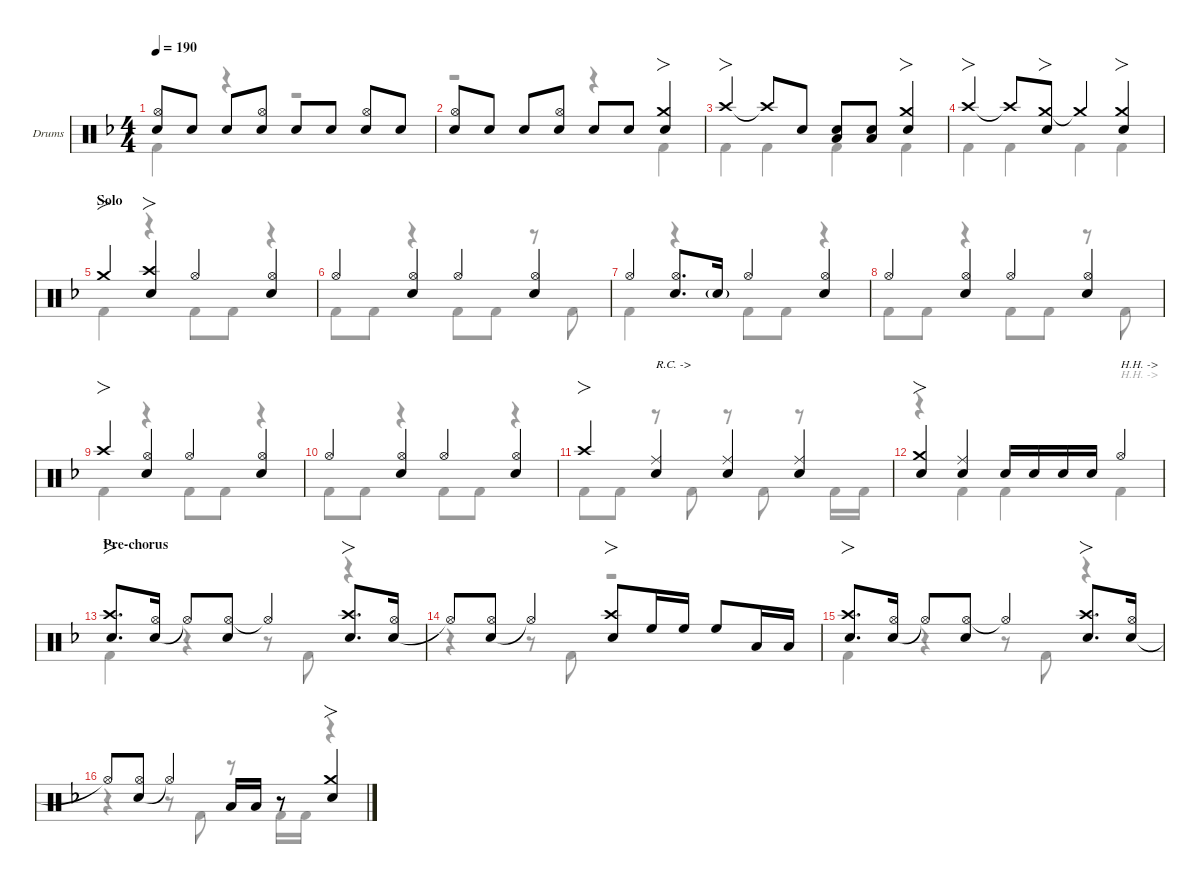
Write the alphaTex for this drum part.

\defaultSystemsLayout 4
\hideDynamics
\bracketExtendMode nobrackets
\firstSystemTrackNameOrientation horizontal
\track ("Drums" "Drums") {defaultSystemsLayout 4 instrument percussion}
\staff {score}
\articulation defaults
\voice
\ts (4 4)
\tempo 190
\clef neutral
\scale
0.266618
\ks dminor
("Snare (hit) 2"{acc forcenatural} "Hi-Hat (open)"{acc forcenatural}).8{dy f beam Up} "Snare (hit) 2"{acc forcenatural}.8{dy mf beam Up} "Snare (hit) 2"{acc forcenatural}.8{beam Up} ("Hi-Hat (open)"{acc forcenatural} "Snare (hit) 2"{acc forcenatural}).8{dy f beam Up} "Snare (hit) 2"{acc forcenatural}.8{dy mf beam Up} "Snare (hit) 2"{acc forcenatural}.8{beam Up} ("Hi-Hat (open)"{acc forcenatural} "Snare (hit) 2"{acc forcenatural}).8{dy f beam Up} "Snare (hit) 2"{acc forcenatural}.8{dy mf beam Up} |
\scale
0.244461 ("Snare (hit) 2"{acc forcenatural} "Hi-Hat (open)"{acc forcenatural}).8{dy f beam Up} "Snare (hit) 2"{acc forcenatural}.8{dy mf beam Up} "Snare (hit) 2"{acc forcenatural}.8{beam Up} ("Hi-Hat (open)"{acc forcenatural} "Snare (hit) 2"{acc forcenatural}).8{dy f beam Up} "Snare (hit) 2"{acc forcenatural}.8{dy mf beam Up} "Snare (hit) 2"{acc forcenatural}.8{beam Up} ("Crash medium (hit)"{acc forcenatural} "Snare (hit) 2"{acc forcenatural}).4{fo dy f beam Up} |
\scale
0.244461 "Crash high (hit)"{acc forcenatural}.4{fo beam Up} "Crash high (hit)"{t acc forcenatural}.8{beam Up} "Snare (hit) 2"{acc forcenatural}.8{beam Up} ("Snare (hit) 2"{acc forcenatural} "Low Tom (hit)"{acc forcenatural}).8{beam Up} ("Snare (hit) 2"{acc forcenatural} "Low Tom (hit)"{acc forcenatural}).8{beam Up} ("Snare (hit) 2"{acc forcenatural} "Crash medium (hit)"{acc forcenatural}).4{fo beam Up} |
\scale
0.244461 "Crash high (hit)"{acc forcenatural}.4{fo beam Up} "Crash high (hit)"{t acc forcenatural}.8{beam Up} ("Crash medium (hit)"{acc forcenatural} "Snare (hit) 2"{acc forcenatural}).8{fo beam Up} "Crash medium (hit)"{t acc forcenatural}.4{beam Up} ("Crash medium (hit)"{acc forcenatural} "Snare (hit) 2"{acc forcenatural}).4{fo beam Up} |
\section ("" "Solo")
\scale
0.267605 "Crash medium (hit)"{acc forcenatural}.4{fo beam Up} ("Crash high (hit)"{acc forcenatural} "Snare (hit) 2"{acc forcenatural}).4{fo beam Up} "Hi-Hat (open)"{acc forcenatural}.4{beam Up} ("Hi-Hat (open)"{acc forcenatural} "Snare (hit) 2"{acc forcenatural}).4{beam Up} |
\scale
0.243474 "Hi-Hat (open)"{acc forcenatural}.4{beam Up} ("Hi-Hat (open)"{acc forcenatural} "Snare (hit) 2"{acc forcenatural}).4{beam Up} "Hi-Hat (open)"{acc forcenatural}.4{beam Up} ("Hi-Hat (open)"{acc forcenatural} "Snare (hit) 2"{acc forcenatural}).4{beam Up} |
\scale
0.244789 "Hi-Hat (open)"{acc forcenatural}.4{beam Up} ("Hi-Hat (open)"{acc forcenatural} "Snare (hit) 2"{acc forcenatural}).8{d beam Up} "Snare (hit) 2"{g acc forcenatural}.16{dy mf beam Up} "Hi-Hat (open)"{acc forcenatural}.4{dy f beam Up} ("Hi-Hat (open)"{acc forcenatural} "Snare (hit) 2"{acc forcenatural}).4{beam Up} |
\scale
0.244132 "Hi-Hat (open)"{acc forcenatural}.4{beam Up} ("Hi-Hat (open)"{acc forcenatural} "Snare (hit) 2"{acc forcenatural}).4{beam Up} "Hi-Hat (open)"{acc forcenatural}.4{beam Up} ("Hi-Hat (open)"{acc forcenatural} "Snare (hit) 2"{acc forcenatural}).4{beam Up} |
\scale
0.266618 "Crash high (hit)"{acc forcenatural}.4{fo beam Up} ("Hi-Hat (open)"{acc forcenatural} "Snare (hit) 2"{acc forcenatural}).4{beam Up} "Hi-Hat (open)"{acc forcenatural}.4{beam Up} ("Hi-Hat (open)"{acc forcenatural} "Snare (hit) 2"{acc forcenatural}).4{beam Up} |
\scale
0.244461 "Hi-Hat (open)"{acc forcenatural}.4{beam Up} ("Hi-Hat (open)"{acc forcenatural} "Snare (hit) 2"{acc forcenatural}).4{beam Up} "Hi-Hat (open)"{acc forcenatural}.4{beam Up} ("Hi-Hat (open)"{acc forcenatural} "Snare (hit) 2"{acc forcenatural}).4{beam Up} |
\scale
0.244789 "Crash high (hit)"{acc forcenatural}.4{fo beam Up} ("Snare (hit) 2"{acc forcenatural} "Ride (middle)"{acc forcenatural}).4{txt "R.C. ->" beam Up} ("Snare (hit) 2"{acc forcenatural} "Ride (middle)"{acc forcenatural}).4{beam Up} ("Snare (hit) 2"{acc forcenatural} "Ride (middle)"{acc forcenatural}).4{beam Up} |
\scale
0.244132 ("Snare (hit) 2"{acc forcenatural} "Crash medium (hit)"{acc forcenatural}).4{fo beam Up} ("Ride (middle)"{acc forcenatural} "Snare (hit) 2"{acc forcenatural}).4{beam Up} "Snare (hit) 2"{acc forcenatural}.16{beam Up} "Snare (hit) 2"{acc forcenatural}.16{dy mp beam Up} "Snare (hit) 2"{acc forcenatural}.16{dy mf beam Up} "Snare (hit) 2"{acc forcenatural}.16{dy mp beam Up beam split} "Hi-Hat (open)"{acc forcenatural}.4{txt "H.H. ->" dy f beam Up} |
\section ("" "Pre-chorus")
\scale
0.267605 ("Snare (hit) 2"{acc forcenatural} "Crash high (hit)"{acc forcenatural}).8{fo d beam Up} ("Snare (hit) 2"{acc forcenatural} "Hi-Hat (open)"{acc forcenatural}).16{beam Up beam split} "Hi-Hat (open)"{t acc forcenatural}.8{beam Up} ("Hi-Hat (open)"{acc forcenatural} "Snare (hit) 2"{acc forcenatural}).8{beam Up} "Hi-Hat (open)"{t acc forcenatural}.4{beam Up} ("Snare (hit) 2"{acc forcenatural} "Crash high (hit)"{acc forcenatural}).8{fo d beam Up} ("Snare (hit) 2"{acc forcenatural} "Hi-Hat (open)"{acc forcenatural}).16{beam Up} |
\scale
0.243474 "Hi-Hat (open)"{t acc forcenatural}.8{beam Up} ("Snare (hit) 2"{acc forcenatural} "Hi-Hat (open)"{acc forcenatural}).8{beam Up} "Hi-Hat (open)"{t acc forcenatural}.4{beam Up} ("Snare (hit) 2"{acc forcenatural} "Crash high (hit)"{acc forcenatural}).8{fo beam Up} "High Floor Tom (hit)"{acc forcenatural}.16{beam Up} "High Floor Tom (hit)"{acc forcenatural}.16{beam Up beam split} "High Floor Tom (hit)"{acc forcenatural}.8{beam Up} "Low Tom (hit)"{acc forcenatural}.16{beam Up} "Low Tom (hit)"{acc forcenatural}.16{beam Up} |
\scale
0.244789 ("Snare (hit) 2"{acc forcenatural} "Crash high (hit)"{acc forcenatural}).8{fo d beam Up} ("Snare (hit) 2"{acc forcenatural} "Hi-Hat (open)"{acc forcenatural}).16{beam Up beam split} "Hi-Hat (open)"{t acc forcenatural}.8{beam Up} ("Hi-Hat (open)"{acc forcenatural} "Snare (hit) 2"{acc forcenatural}).8{beam Up} "Hi-Hat (open)"{t acc forcenatural}.4{beam Up} ("Snare (hit) 2"{acc forcenatural} "Crash high (hit)"{acc forcenatural}).8{fo d beam Up} ("Snare (hit) 2"{acc forcenatural} "Hi-Hat (open)"{acc forcenatural}).16{beam Up} |
\scale
0.244132 "Hi-Hat (open)"{t acc forcenatural}.8{beam Up} ("Snare (hit) 2"{acc forcenatural} "Hi-Hat (open)"{acc forcenatural}).8{beam Up} "Hi-Hat (open)"{t acc forcenatural}.4{beam Up} "Low Tom (hit)"{acc forcenatural}.16{beam Up} "Low Tom (hit)"{acc forcenatural}.16{beam Up} r.8{beam Up} ("Snare (hit) 2"{acc forcenatural} "Crash medium (hit)"{acc forcenatural}).4{fo beam Up}
\voice
\clef neutral
\ottava regular
\simile none
\scale
0.266618
\ks dminor "Kick (hit) 2"{acc forcenatural}.4{dy f beam Down}
r.4{beam Down} r.2{beam Down} |
\scale
0.244461 r.2{beam Down} r.4{beam Down} "Kick (hit) 2"{acc forcenatural}.4{beam Down} |
\scale
0.244461 "Kick (hit) 2"{acc forcenatural}.4{beam Down} "Kick (hit) 2"{acc forcenatural}.4{beam Down} "Kick (hit) 2"{acc forcenatural}.4{beam Down} "Kick (hit) 2"{acc forcenatural}.4{beam Down} |
\scale
0.244461 "Kick (hit) 2"{acc forcenatural}.4{beam Down} "Kick (hit) 2"{acc forcenatural}.4{beam Down} "Kick (hit) 2"{acc forcenatural}.4{beam Down} "Kick (hit) 2"{acc forcenatural}.4{beam Down} |
\scale
0.267605 "Kick (hit) 2"{acc forcenatural}.4{beam Down} r.4{beam Down} "Kick (hit) 2"{acc forcenatural}.8{beam Down} "Kick (hit) 2"{acc forcenatural}.8{beam Down} r.4{beam Down} |
\scale
0.243474 "Kick (hit) 2"{acc forcenatural}.8{beam Down} "Kick (hit) 2"{acc forcenatural}.8{beam Down} r.4{beam Down} "Kick (hit) 2"{acc forcenatural}.8{beam Down} "Kick (hit) 2"{acc forcenatural}.8{beam Down} r.8{beam Down} "Kick (hit) 2"{acc forcenatural}.8{beam Down} |
\scale
0.244789 "Kick (hit) 2"{acc forcenatural}.4{beam Down} r.4{beam Down} "Kick (hit) 2"{acc forcenatural}.8{beam Down} "Kick (hit) 2"{acc forcenatural}.8{beam Down} r.4{beam Down} |
\scale
0.244132 "Kick (hit) 2"{acc forcenatural}.8{beam Down} "Kick (hit) 2"{acc forcenatural}.8{beam Down} r.4{beam Down} "Kick (hit) 2"{acc forcenatural}.8{beam Down} "Kick (hit) 2"{acc forcenatural}.8{beam Down} r.8{beam Down} "Kick (hit) 2"{acc forcenatural}.8{beam Down} |
\scale
0.266618 "Kick (hit) 2"{acc forcenatural}.4{beam Down} r.4{beam Down} "Kick (hit) 2"{acc forcenatural}.8{beam Down} "Kick (hit) 2"{acc forcenatural}.8{beam Down} r.4{beam Down} |
\scale
0.244461 "Kick (hit) 2"{acc forcenatural}.8{beam Down} "Kick (hit) 2"{acc forcenatural}.8{beam Down} r.4{beam Down} "Kick (hit) 2"{acc forcenatural}.8{beam Down} "Kick (hit) 2"{acc forcenatural}.8{beam Down} r.4{beam Down} |
\scale
0.244789 "Kick (hit) 2"{acc forcenatural}.8{beam Down} "Kick (hit) 2"{acc forcenatural}.8{beam Down} r.8{txt "R.C. ->" beam Down} "Kick (hit) 2"{acc forcenatural}.8{beam Down} r.8{beam Down} "Kick (hit) 2"{acc forcenatural}.8{beam Down beam split} r.8{beam Down beam split} "Kick (hit) 2"{acc forcenatural}.16{beam Down} "Kick (hit) 2"{acc forcenatural}.16{beam Down} |
\scale
0.244132 r.4{beam Down} "Kick (hit) 2"{acc forcenatural}.4{beam Down} "Kick (hit) 2"{acc forcenatural}.4{beam Down} "Kick (hit) 2"{acc forcenatural}.4{txt "H.H. ->" beam Down} |
\scale
0.267605 "Kick (hit) 2"{acc forcenatural}.4{beam Down} r.4{beam Down} r.8{beam Down} "Kick (hit) 2"{acc forcenatural}.8{beam Down} r.4{beam Down} |
\scale
0.243474 r.4{beam Down} r.8{beam Down} "Kick (hit) 2"{acc forcenatural}.8{beam Down} r.2{beam Down} |
\scale
0.244789 "Kick (hit) 2"{acc forcenatural}.4{beam Down} r.4{beam Down} r.8{beam Down} "Kick (hit) 2"{acc forcenatural}.8{beam Down} r.4{beam Down} |
\scale
0.244132 r.4{beam Down} r.8{beam Down} "Kick (hit) 2"{acc forcenatural}.8{beam Down} r.8{beam Down} "Kick (hit) 2"{acc forcenatural}.16{beam Down} "Kick (hit) 2"{acc forcenatural}.16{beam Down} r.4{beam Down}
